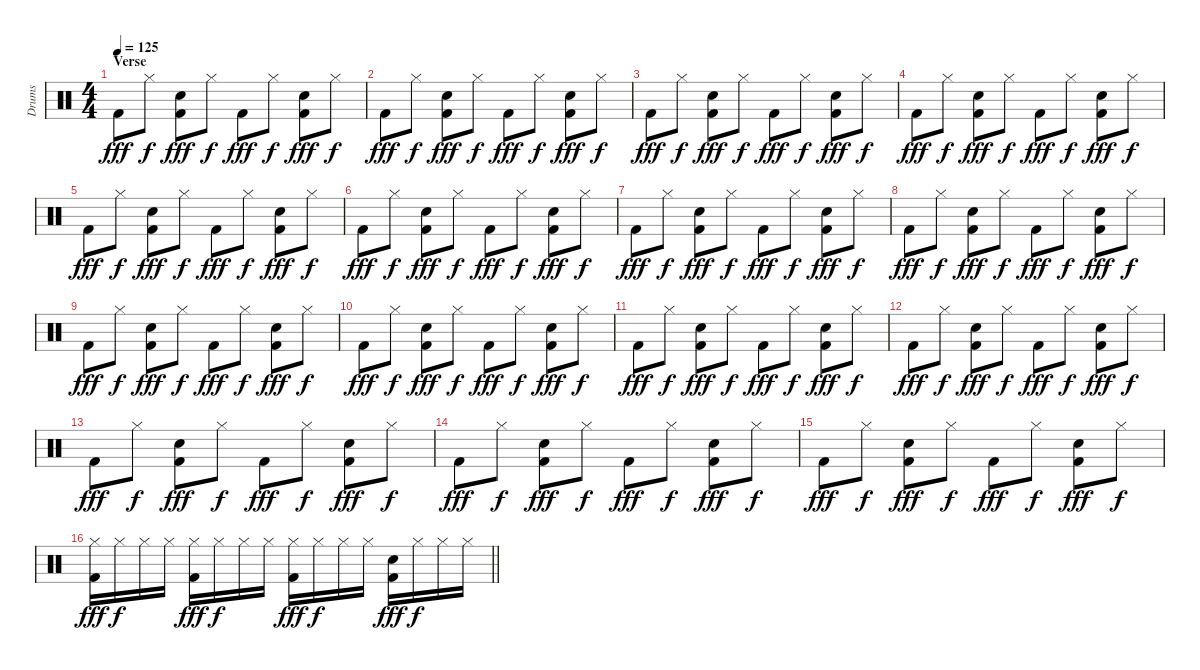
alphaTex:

\track ("Drums" "Drums") {instrument percussion}
\staff {score}
\articulation defaults
\ts (4 4)
\section ("" "Verse")
\tempo 125
\clef neutral
\ks c "Kick (hit) 2".8{dy fff} "Hi-Hat (closed)".8{dy f}
("Snare (hit) 2" "Kick (hit) 2").8{dy fff} "Hi-Hat (closed)".8{dy f} "Kick (hit) 2".8{dy fff} "Hi-Hat (closed)".8{dy f} ("Snare (hit) 2" "Kick (hit) 2").8{dy fff} "Hi-Hat (closed)".8{dy f} |
"Kick (hit) 2".8{dy fff} "Hi-Hat (closed)".8{dy f} ("Snare (hit) 2" "Kick (hit) 2").8{dy fff} "Hi-Hat (closed)".8{dy f} "Kick (hit) 2".8{dy fff} "Hi-Hat (closed)".8{dy f} ("Snare (hit) 2" "Kick (hit) 2").8{dy fff} "Hi-Hat (closed)".8{dy f} |
"Kick (hit) 2".8{dy fff} "Hi-Hat (closed)".8{dy f} ("Snare (hit) 2" "Kick (hit) 2").8{dy fff} "Hi-Hat (closed)".8{dy f} "Kick (hit) 2".8{dy fff} "Hi-Hat (closed)".8{dy f} ("Snare (hit) 2" "Kick (hit) 2").8{dy fff} "Hi-Hat (closed)".8{dy f} |
"Kick (hit) 2".8{dy fff} "Hi-Hat (closed)".8{dy f} ("Snare (hit) 2" "Kick (hit) 2").8{dy fff} "Hi-Hat (closed)".8{dy f} "Kick (hit) 2".8{dy fff} "Hi-Hat (closed)".8{dy f} ("Snare (hit) 2" "Kick (hit) 2").8{dy fff} "Hi-Hat (closed)".8{dy f} |
"Kick (hit) 2".8{dy fff} "Hi-Hat (closed)".8{dy f} ("Snare (hit) 2" "Kick (hit) 2").8{dy fff} "Hi-Hat (closed)".8{dy f} "Kick (hit) 2".8{dy fff} "Hi-Hat (closed)".8{dy f} ("Snare (hit) 2" "Kick (hit) 2").8{dy fff} "Hi-Hat (closed)".8{dy f} |
"Kick (hit) 2".8{dy fff} "Hi-Hat (closed)".8{dy f} ("Snare (hit) 2" "Kick (hit) 2").8{dy fff} "Hi-Hat (closed)".8{dy f} "Kick (hit) 2".8{dy fff} "Hi-Hat (closed)".8{dy f} ("Snare (hit) 2" "Kick (hit) 2").8{dy fff} "Hi-Hat (closed)".8{dy f} |
"Kick (hit) 2".8{dy fff} "Hi-Hat (closed)".8{dy f} ("Snare (hit) 2" "Kick (hit) 2").8{dy fff} "Hi-Hat (closed)".8{dy f} "Kick (hit) 2".8{dy fff} "Hi-Hat (closed)".8{dy f} ("Snare (hit) 2" "Kick (hit) 2").8{dy fff} "Hi-Hat (closed)".8{dy f} |
"Kick (hit) 2".8{dy fff} "Hi-Hat (closed)".8{dy f} ("Snare (hit) 2" "Kick (hit) 2").8{dy fff} "Hi-Hat (closed)".8{dy f} "Kick (hit) 2".8{dy fff} "Hi-Hat (closed)".8{dy f} ("Snare (hit) 2" "Kick (hit) 2").8{dy fff} "Hi-Hat (closed)".8{dy f} |
"Kick (hit) 2".8{dy fff} "Hi-Hat (closed)".8{dy f} ("Snare (hit) 2" "Kick (hit) 2").8{dy fff} "Hi-Hat (closed)".8{dy f} "Kick (hit) 2".8{dy fff} "Hi-Hat (closed)".8{dy f} ("Snare (hit) 2" "Kick (hit) 2").8{dy fff} "Hi-Hat (closed)".8{dy f} |
"Kick (hit) 2".8{dy fff} "Hi-Hat (closed)".8{dy f} ("Snare (hit) 2" "Kick (hit) 2").8{dy fff} "Hi-Hat (closed)".8{dy f} "Kick (hit) 2".8{dy fff} "Hi-Hat (closed)".8{dy f} ("Snare (hit) 2" "Kick (hit) 2").8{dy fff} "Hi-Hat (closed)".8{dy f} |
"Kick (hit) 2".8{dy fff} "Hi-Hat (closed)".8{dy f} ("Snare (hit) 2" "Kick (hit) 2").8{dy fff} "Hi-Hat (closed)".8{dy f} "Kick (hit) 2".8{dy fff} "Hi-Hat (closed)".8{dy f} ("Snare (hit) 2" "Kick (hit) 2").8{dy fff} "Hi-Hat (closed)".8{dy f} |
"Kick (hit) 2".8{dy fff} "Hi-Hat (closed)".8{dy f} ("Snare (hit) 2" "Kick (hit) 2").8{dy fff} "Hi-Hat (closed)".8{dy f} "Kick (hit) 2".8{dy fff} "Hi-Hat (closed)".8{dy f} ("Snare (hit) 2" "Kick (hit) 2").8{dy fff} "Hi-Hat (closed)".8{dy f} |
"Kick (hit) 2".8{dy fff} "Hi-Hat (closed)".8{dy f} ("Snare (hit) 2" "Kick (hit) 2").8{dy fff} "Hi-Hat (closed)".8{dy f} "Kick (hit) 2".8{dy fff} "Hi-Hat (closed)".8{dy f} ("Snare (hit) 2" "Kick (hit) 2").8{dy fff} "Hi-Hat (closed)".8{dy f} |
"Kick (hit) 2".8{dy fff} "Hi-Hat (closed)".8{dy f} ("Snare (hit) 2" "Kick (hit) 2").8{dy fff} "Hi-Hat (closed)".8{dy f} "Kick (hit) 2".8{dy fff} "Hi-Hat (closed)".8{dy f} ("Snare (hit) 2" "Kick (hit) 2").8{dy fff} "Hi-Hat (closed)".8{dy f} |
"Kick (hit) 2".8{dy fff} "Hi-Hat (closed)".8{dy f} ("Snare (hit) 2" "Kick (hit) 2").8{dy fff} "Hi-Hat (closed)".8{dy f} "Kick (hit) 2".8{dy fff} "Hi-Hat (closed)".8{dy f} ("Snare (hit) 2" "Kick (hit) 2").8{dy fff} "Hi-Hat (closed)".8{dy f} |
\barLineRight lightlight
("Hi-Hat (closed)" "Kick (hit) 2").16{dy fff} "Hi-Hat (closed)".16{dy f} "Hi-Hat (closed)".16 "Hi-Hat (closed)".16 ("Hi-Hat (closed)" "Kick (hit) 2").16{dy fff} "Hi-Hat (closed)".16{dy f} "Hi-Hat (closed)".16 "Hi-Hat (closed)".16 ("Hi-Hat (closed)" "Kick (hit) 2").16{dy fff} "Hi-Hat (closed)".16{dy f} "Hi-Hat (closed)".16 "Hi-Hat (closed)".16 ("Snare (hit) 2" "Kick (hit) 2").16{dy fff} "Hi-Hat (closed)".16{dy f} "Hi-Hat (closed)".16 "Hi-Hat (closed)".16
